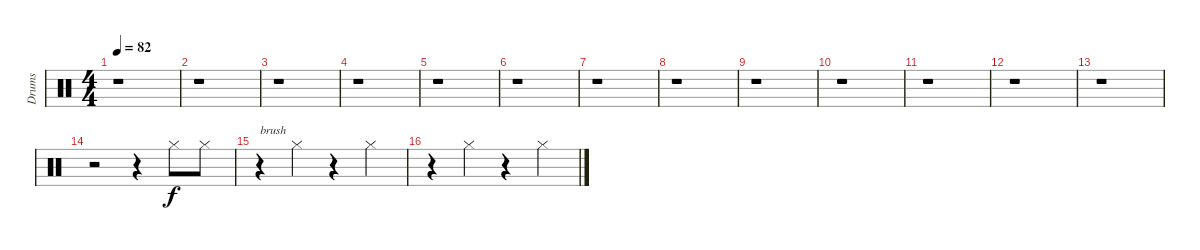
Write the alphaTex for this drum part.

\track ("Drums" "Drums") {instrument percussion}
\staff {score}
\articulation defaults
\ts (4 4)
\tempo 82
\clef neutral
\ks c
r.1{dy f} |
r.1 |
r.1 |
r.1 |
r.1 |
r.1 |
r.1 |
r.1 |
r.1 |
r.1 |
r.1 |
r.1 |
r.1 |
r.2 r.4 "Hi-Hat (closed)".8 "Hi-Hat (closed)".8 |
r.4{txt "brush"} "Hi-Hat (closed)".4 r.4 "Hi-Hat (closed)".4 |
r.4 "Hi-Hat (closed)".4 r.4 "Hi-Hat (closed)".4
